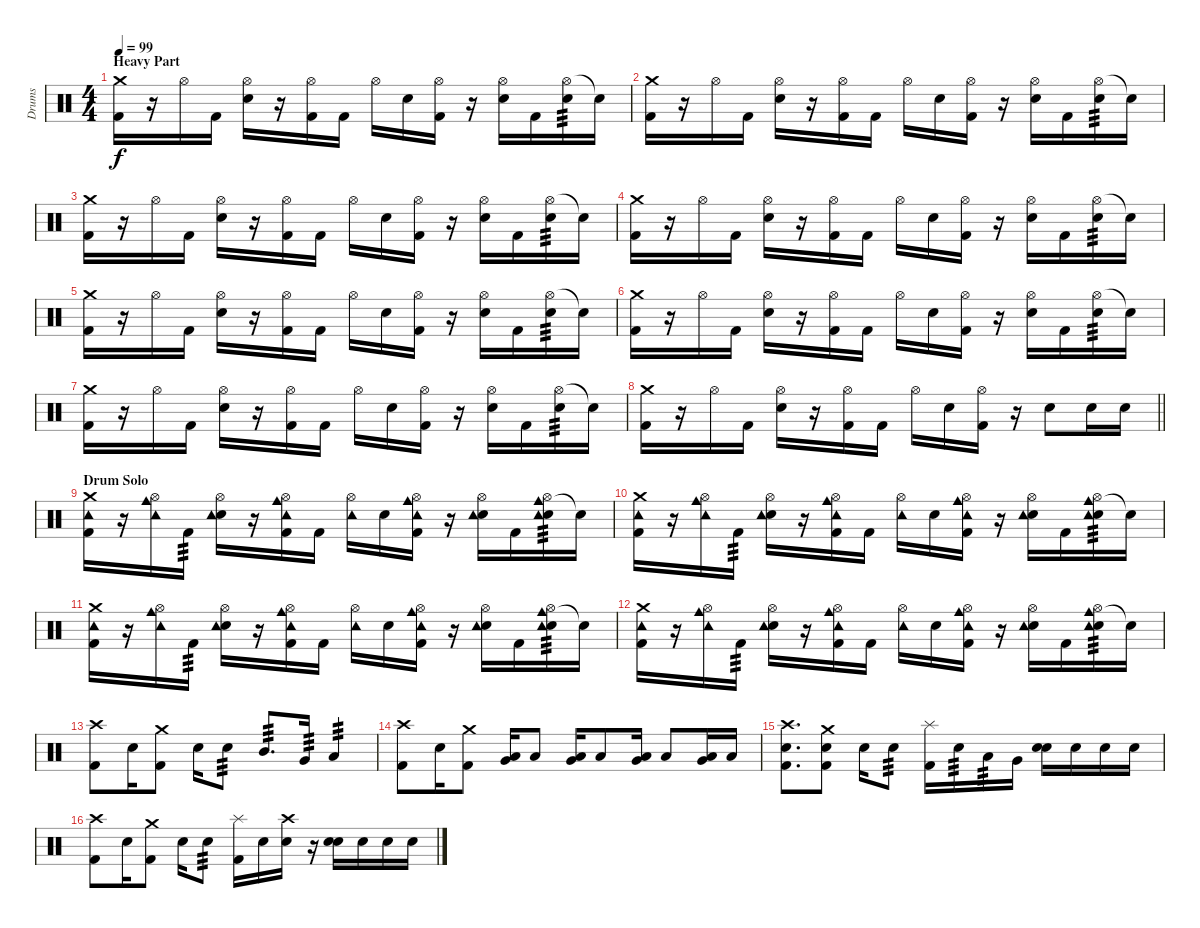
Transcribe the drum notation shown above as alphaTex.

\track ("Drums" "Drums") {instrument percussion}
\staff {score}
\articulation defaults
\ts (4 4)
\section ("" "Heavy Part")
\tempo 99
\clef neutral
\ks c
("Crash medium (hit)" "Kick (hit) 2").16{dy f} r.16 "Hi-Hat (open)".16 "Kick (hit) 2".16 ("Hi-Hat (open)" "Electric Snare (hit)").16 r.16 ("Hi-Hat (open)" "Kick (hit) 2").16 "Kick (hit) 2".16 "Hi-Hat (open)".16 "Electric Snare (hit)".16 ("Hi-Hat (open)" "Kick (hit) 2").16 r.16 ("Hi-Hat (open)" "Electric Snare (hit)").16 "Kick (hit) 2".16 ("Hi-Hat (open)" "Electric Snare (hit)").16{tp 3} "Electric Snare (hit)"{t}.16 |
("Crash medium (hit)" "Kick (hit) 2").16 r.16 "Hi-Hat (open)".16 "Kick (hit) 2".16 ("Hi-Hat (open)" "Electric Snare (hit)").16 r.16 ("Hi-Hat (open)" "Kick (hit) 2").16 "Kick (hit) 2".16 "Hi-Hat (open)".16 "Electric Snare (hit)".16 ("Hi-Hat (open)" "Kick (hit) 2").16 r.16 ("Hi-Hat (open)" "Electric Snare (hit)").16 "Kick (hit) 2".16 ("Hi-Hat (open)" "Electric Snare (hit)").16{tp 3} "Electric Snare (hit)"{t}.16 |
("Crash medium (hit)" "Kick (hit) 2").16 r.16 "Hi-Hat (open)".16 "Kick (hit) 2".16 ("Hi-Hat (open)" "Electric Snare (hit)").16 r.16 ("Hi-Hat (open)" "Kick (hit) 2").16 "Kick (hit) 2".16 "Hi-Hat (open)".16 "Electric Snare (hit)".16 ("Hi-Hat (open)" "Kick (hit) 2").16 r.16 ("Hi-Hat (open)" "Electric Snare (hit)").16 "Kick (hit) 2".16 ("Hi-Hat (open)" "Electric Snare (hit)").16{tp 3} "Electric Snare (hit)"{t}.16 |
("Crash medium (hit)" "Kick (hit) 2").16 r.16 "Hi-Hat (open)".16 "Kick (hit) 2".16 ("Hi-Hat (open)" "Electric Snare (hit)").16 r.16 ("Hi-Hat (open)" "Kick (hit) 2").16 "Kick (hit) 2".16 "Hi-Hat (open)".16 "Electric Snare (hit)".16 ("Hi-Hat (open)" "Kick (hit) 2").16 r.16 ("Hi-Hat (open)" "Electric Snare (hit)").16 "Kick (hit) 2".16 ("Hi-Hat (open)" "Electric Snare (hit)").16{tp 3} "Electric Snare (hit)"{t}.16 |
("Crash medium (hit)" "Kick (hit) 2").16 r.16 "Hi-Hat (open)".16 "Kick (hit) 2".16 ("Hi-Hat (open)" "Electric Snare (hit)").16 r.16 ("Hi-Hat (open)" "Kick (hit) 2").16 "Kick (hit) 2".16 "Hi-Hat (open)".16 "Electric Snare (hit)".16 ("Hi-Hat (open)" "Kick (hit) 2").16 r.16 ("Hi-Hat (open)" "Electric Snare (hit)").16 "Kick (hit) 2".16 ("Hi-Hat (open)" "Electric Snare (hit)").16{tp 3} "Electric Snare (hit)"{t}.16 |
("Crash medium (hit)" "Kick (hit) 2").16 r.16 "Hi-Hat (open)".16 "Kick (hit) 2".16 ("Hi-Hat (open)" "Electric Snare (hit)").16 r.16 ("Hi-Hat (open)" "Kick (hit) 2").16 "Kick (hit) 2".16 "Hi-Hat (open)".16 "Electric Snare (hit)".16 ("Hi-Hat (open)" "Kick (hit) 2").16 r.16 ("Hi-Hat (open)" "Electric Snare (hit)").16 "Kick (hit) 2".16 ("Hi-Hat (open)" "Electric Snare (hit)").16{tp 3} "Electric Snare (hit)"{t}.16 |
("Crash medium (hit)" "Kick (hit) 2").16 r.16 "Hi-Hat (open)".16 "Kick (hit) 2".16 ("Hi-Hat (open)" "Electric Snare (hit)").16 r.16 ("Hi-Hat (open)" "Kick (hit) 2").16 "Kick (hit) 2".16 "Hi-Hat (open)".16 "Electric Snare (hit)".16 ("Hi-Hat (open)" "Kick (hit) 2").16 r.16 ("Hi-Hat (open)" "Electric Snare (hit)").16 "Kick (hit) 2".16 ("Hi-Hat (open)" "Electric Snare (hit)").16{tp 3} "Electric Snare (hit)"{t}.16 |
\barLineRight lightlight
("Crash medium (hit)" "Kick (hit) 2").16 r.16 "Hi-Hat (open)".16 "Kick (hit) 2".16 ("Hi-Hat (open)" "Electric Snare (hit)").16 r.16 ("Hi-Hat (open)" "Kick (hit) 2").16 "Kick (hit) 2".16 "Hi-Hat (open)".16 "Electric Snare (hit)".16 ("Hi-Hat (open)" "Kick (hit) 2").16 r.16 "Electric Snare (hit)".8 "Electric Snare (hit)".16 "Electric Snare (hit)".16 |
\section ("" "Drum Solo")
("Crash medium (hit)" "Tambourine (hit)" "Kick (hit) 2").16 r.16 ("Cowbell medium (hit)" "Hi-Hat (open)" "Tambourine (hit)").16 "Kick (hit) 2".16{tp 3} ("Hi-Hat (open)" "Electric Snare (hit)" "Tambourine (hit)").16 r.16 ("Cowbell medium (hit)" "Hi-Hat (open)" "Tambourine (hit)" "Kick (hit) 2").16 "Kick (hit) 2".16 ("Hi-Hat (open)" "Tambourine (hit)").16 "Electric Snare (hit)".16 ("Cowbell medium (hit)" "Hi-Hat (open)" "Tambourine (hit)" "Kick (hit) 2").16 r.16 ("Hi-Hat (open)" "Electric Snare (hit)" "Tambourine (hit)").16 "Kick (hit) 2".16 ("Cowbell medium (hit)" "Hi-Hat (open)" "Electric Snare (hit)" "Tambourine (hit)").16{tp 3} "Electric Snare (hit)"{t}.16 |
("Crash medium (hit)" "Tambourine (hit)" "Kick (hit) 2").16 r.16 ("Cowbell medium (hit)" "Hi-Hat (open)" "Tambourine (hit)").16 "Kick (hit) 2".16{tp 3} ("Hi-Hat (open)" "Electric Snare (hit)" "Tambourine (hit)").16 r.16 ("Cowbell medium (hit)" "Hi-Hat (open)" "Tambourine (hit)" "Kick (hit) 2").16 "Kick (hit) 2".16 ("Hi-Hat (open)" "Tambourine (hit)").16 "Electric Snare (hit)".16 ("Cowbell medium (hit)" "Hi-Hat (open)" "Tambourine (hit)" "Kick (hit) 2").16 r.16 ("Hi-Hat (open)" "Electric Snare (hit)" "Tambourine (hit)").16 "Kick (hit) 2".16 ("Cowbell medium (hit)" "Hi-Hat (open)" "Electric Snare (hit)" "Tambourine (hit)").16{tp 3} "Electric Snare (hit)"{t}.16 |
("Crash medium (hit)" "Tambourine (hit)" "Kick (hit) 2").16 r.16 ("Cowbell medium (hit)" "Hi-Hat (open)" "Tambourine (hit)").16 "Kick (hit) 2".16{tp 3} ("Hi-Hat (open)" "Electric Snare (hit)" "Tambourine (hit)").16 r.16 ("Cowbell medium (hit)" "Hi-Hat (open)" "Tambourine (hit)" "Kick (hit) 2").16 "Kick (hit) 2".16 ("Hi-Hat (open)" "Tambourine (hit)").16 "Electric Snare (hit)".16 ("Cowbell medium (hit)" "Hi-Hat (open)" "Tambourine (hit)" "Kick (hit) 2").16 r.16 ("Hi-Hat (open)" "Electric Snare (hit)" "Tambourine (hit)").16 "Kick (hit) 2".16 ("Cowbell medium (hit)" "Hi-Hat (open)" "Electric Snare (hit)" "Tambourine (hit)").16{tp 3} "Electric Snare (hit)"{t}.16 |
("Crash medium (hit)" "Tambourine (hit)" "Kick (hit) 2").16 r.16 ("Cowbell medium (hit)" "Hi-Hat (open)" "Tambourine (hit)").16 "Kick (hit) 2".16{tp 3} ("Hi-Hat (open)" "Electric Snare (hit)" "Tambourine (hit)").16 r.16 ("Cowbell medium (hit)" "Hi-Hat (open)" "Tambourine (hit)" "Kick (hit) 2").16 "Kick (hit) 2".16 ("Hi-Hat (open)" "Tambourine (hit)").16 "Electric Snare (hit)".16 ("Cowbell medium (hit)" "Hi-Hat (open)" "Tambourine (hit)" "Kick (hit) 2").16 r.16 ("Hi-Hat (open)" "Electric Snare (hit)" "Tambourine (hit)").16 "Kick (hit) 2".16 ("Cowbell medium (hit)" "Hi-Hat (open)" "Electric Snare (hit)" "Tambourine (hit)").16{tp 3} "Electric Snare (hit)"{t}.16 |
("Crash high (hit)" "Kick (hit) 2").8 "Electric Snare (hit)".16 ("Crash medium (hit)" "Kick (hit) 2").8 "Electric Snare (hit)".16 "Electric Snare (hit)".8{tp 3} "Mid Tom (hit)".8{d tp 3} "Very Low Tom (hit)".16{tp 3} "Low Floor Tom (hit)".4{tp 3} |
("Crash high (hit)" "Kick (hit) 2").8 "Electric Snare (hit)".16 ("Crash medium (hit)" "Kick (hit) 2").8 ("Very Low Tom (hit)" "Low Floor Tom (hit)").16 "Low Floor Tom (hit)".8 ("Very Low Tom (hit)" "Low Floor Tom (hit)").16 "Low Floor Tom (hit)".8 ("Very Low Tom (hit)" "Low Floor Tom (hit)").16 "Low Floor Tom (hit)".8 ("Very Low Tom (hit)" "Low Floor Tom (hit)").16 "Low Floor Tom (hit)".16 |
("Crash high (hit)" "Electric Snare (hit)" "Kick (hit) 2").8{d} ("Crash medium (hit)" "Electric Snare (hit)" "Kick (hit) 2").8 "Electric Snare (hit)".16 "Electric Snare (hit)".8{tp 3} ("Splash (hit)" "Kick (hit) 2").16 "Electric Snare (hit)".16{tp 3} "Low Tom (hit)".16{tp 3} "Very Low Tom (hit)".16 ("Electric Snare (hit)" "Electric Snare (hit)").16 "Electric Snare (hit)".16 "Electric Snare (hit)".16 "Electric Snare (hit)".16 |
("Crash high (hit)" "Kick (hit) 2").8 "Electric Snare (hit)".16 ("Crash medium (hit)" "Kick (hit) 2").8 "Electric Snare (hit)".16 "Electric Snare (hit)".8{tp 3} ("Splash (hit)" "Kick (hit) 2").16 "Electric Snare (hit)".16 ("Crash high (hit)" "Electric Snare (hit)").16 r.16 ("Electric Snare (hit)" "Electric Snare (hit)").16 "Electric Snare (hit)".16 "Electric Snare (hit)".16 "Electric Snare (hit)".16
